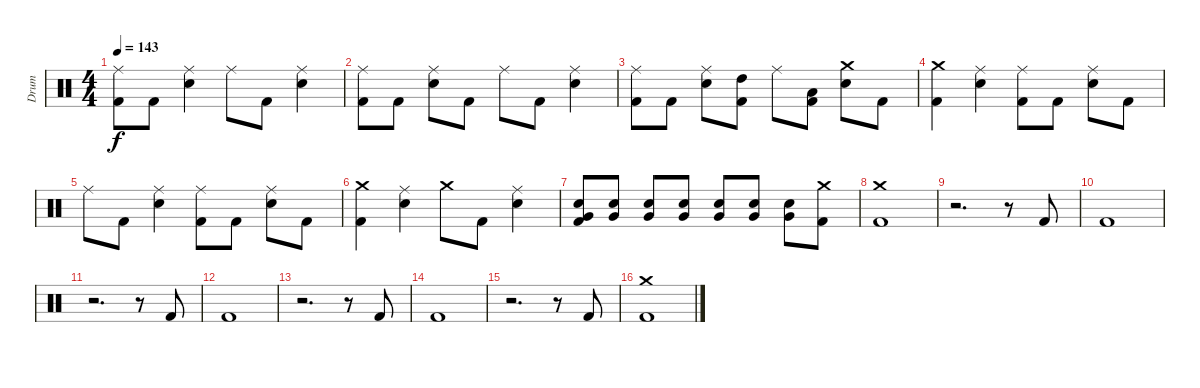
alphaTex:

\track ("Drum" "Drum") {instrument percussion}
\staff {score}
\articulation defaults
\ts (4 4)
\tempo 143
\clef neutral
\ks c
("Ride (middle)" "Kick (hit) 2").8{dy f} "Kick (hit) 2".8 ("Ride (middle)" "Snare (hit) 2").4 "Ride (middle)".8 "Kick (hit) 2".8 ("Ride (middle)" "Snare (hit) 2").4 |
("Ride (middle)" "Kick (hit) 2").8 "Kick (hit) 2".8 ("Ride (middle)" "Snare (hit) 2").8 "Kick (hit) 2".8 "Ride (middle)".8 "Kick (hit) 2".8 ("Ride (middle)" "Snare (hit) 2").4 |
("Ride (middle)" "Kick (hit) 2").8 "Kick (hit) 2".8 ("Ride (middle)" "Snare (hit) 2").8 ("High Tom (hit)" "Kick (hit) 2").8 "Ride (middle)".8 ("Low Tom (hit)" "Kick (hit) 2").8 ("Crash medium (hit)" "Snare (hit) 2").8 "Kick (hit) 2".8 |
("Crash medium (hit)" "Kick (hit) 2").4 ("Ride (middle)" "Snare (hit) 2").4 ("Ride (middle)" "Kick (hit) 2").8 "Kick (hit) 2".8 ("Ride (middle)" "Snare (hit) 2").8 "Kick (hit) 2".8 |
"Ride (middle)".8 "Kick (hit) 2".8 ("Ride (middle)" "Snare (hit) 2").4 ("Ride (middle)" "Kick (hit) 2").8 "Kick (hit) 2".8 ("Ride (middle)" "Snare (hit) 2").8 "Kick (hit) 2".8 |
("Crash medium (hit)" "Kick (hit) 2").4 ("Ride (middle)" "Snare (hit) 2").4 "Crash medium (hit)".8 "Kick (hit) 2".8 ("Ride (middle)" "Snare (hit) 2").4 |
("Snare (hit) 2" "Very Low Tom (hit)" "Kick (hit) 2").8 ("Snare (hit) 2" "Very Low Tom (hit)").8 ("Snare (hit) 2" "Very Low Tom (hit)").8 ("Snare (hit) 2" "Very Low Tom (hit)").8 ("Snare (hit) 2" "Very Low Tom (hit)").8 ("Snare (hit) 2" "Very Low Tom (hit)").8 ("Snare (hit) 2" "Very Low Tom (hit)").8 ("Crash medium (hit)" "Kick (hit) 2").8 |
("Crash medium (hit)" "Kick (hit) 2").1 |
r.2{d} r.8 "Kick (hit) 2".8 |
"Kick (hit) 2".1 |
r.2{d} r.8 "Kick (hit) 2".8 |
"Kick (hit) 2".1 |
r.2{d} r.8 "Kick (hit) 2".8 |
"Kick (hit) 2".1 |
r.2{d} r.8 "Kick (hit) 2".8 |
("Crash medium (hit)" "Kick (hit) 2").1
